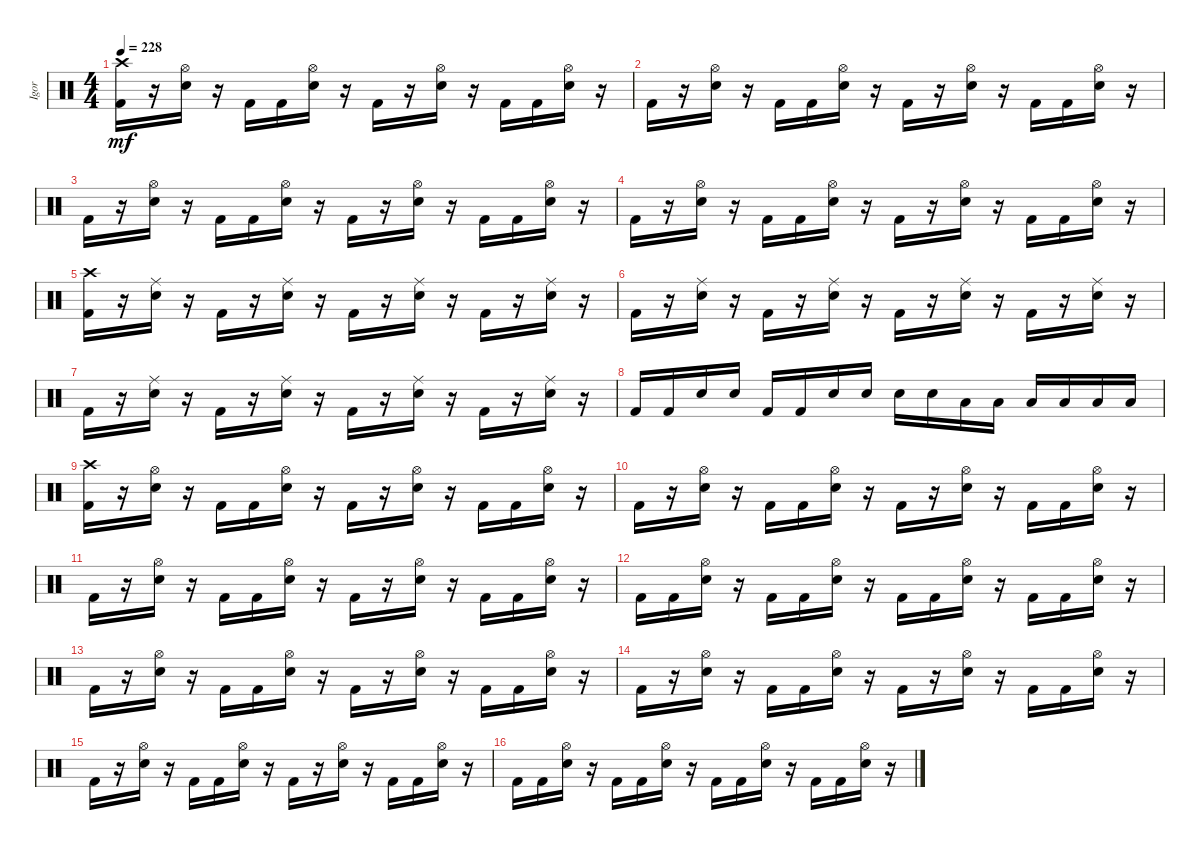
\track ("Igor" "Igor") {instrument percussion}
\staff {score}
\articulation defaults
\ts (4 4)
\tempo 228
\clef neutral
\ks c
("Kick (hit) 2" "Crash high (hit)").16{dy mf} r.16 ("Snare (hit) 2" "Hi-Hat (open)").16 r.16 "Kick (hit) 2".16 "Kick (hit) 2".16 ("Snare (hit) 2" "Hi-Hat (open)").16 r.16 "Kick (hit) 2".16 r.16 ("Snare (hit) 2" "Hi-Hat (open)").16 r.16 "Kick (hit) 2".16 "Kick (hit) 2".16 ("Snare (hit) 2" "Hi-Hat (open)").16 r.16 |
"Kick (hit) 2".16 r.16 ("Snare (hit) 2" "Hi-Hat (open)").16 r.16 "Kick (hit) 2".16 "Kick (hit) 2".16 ("Snare (hit) 2" "Hi-Hat (open)").16 r.16 "Kick (hit) 2".16 r.16 ("Snare (hit) 2" "Hi-Hat (open)").16 r.16 "Kick (hit) 2".16 "Kick (hit) 2".16 ("Snare (hit) 2" "Hi-Hat (open)").16 r.16 |
"Kick (hit) 2".16 r.16 ("Snare (hit) 2" "Hi-Hat (open)").16 r.16 "Kick (hit) 2".16 "Kick (hit) 2".16 ("Snare (hit) 2" "Hi-Hat (open)").16 r.16 "Kick (hit) 2".16 r.16 ("Snare (hit) 2" "Hi-Hat (open)").16 r.16 "Kick (hit) 2".16 "Kick (hit) 2".16 ("Snare (hit) 2" "Hi-Hat (open)").16 r.16 |
"Kick (hit) 2".16 r.16 ("Snare (hit) 2" "Hi-Hat (open)").16 r.16 "Kick (hit) 2".16 "Kick (hit) 2".16 ("Snare (hit) 2" "Hi-Hat (open)").16 r.16 "Kick (hit) 2".16 r.16 ("Snare (hit) 2" "Hi-Hat (open)").16 r.16 "Kick (hit) 2".16 "Kick (hit) 2".16 ("Snare (hit) 2" "Hi-Hat (open)").16 r.16 |
("Kick (hit) 2" "Crash high (hit)").16 r.16 ("Snare (hit) 2" "Ride (middle)").16 r.16 "Kick (hit) 2".16 r.16 ("Snare (hit) 2" "Ride (middle)").16 r.16 "Kick (hit) 2".16 r.16 ("Snare (hit) 2" "Ride (middle)").16 r.16 "Kick (hit) 2".16 r.16 ("Snare (hit) 2" "Ride (middle)").16 r.16 |
"Kick (hit) 2".16 r.16 ("Snare (hit) 2" "Ride (middle)").16 r.16 "Kick (hit) 2".16 r.16 ("Snare (hit) 2" "Ride (middle)").16 r.16 "Kick (hit) 2".16 r.16 ("Snare (hit) 2" "Ride (middle)").16 r.16 "Kick (hit) 2".16 r.16 ("Snare (hit) 2" "Ride (middle)").16 r.16 |
"Kick (hit) 2".16 r.16 ("Snare (hit) 2" "Ride (middle)").16 r.16 "Kick (hit) 2".16 r.16 ("Snare (hit) 2" "Ride (middle)").16 r.16 "Kick (hit) 2".16 r.16 ("Snare (hit) 2" "Ride (middle)").16 r.16 "Kick (hit) 2".16 r.16 ("Snare (hit) 2" "Ride (middle)").16 r.16 |
"Kick (hit) 2".16 "Kick (hit) 2".16 "Snare (hit) 2".16 "Snare (hit) 2".16 "Kick (hit) 2".16 "Kick (hit) 2".16 "Snare (hit) 2".16 "Snare (hit) 2".16 "Snare (hit) 2".16 "Snare (hit) 2".16 "Low Tom (hit)".16 "Low Tom (hit)".16 "Low Tom (hit)".16 "Low Tom (hit)".16 "Low Floor Tom (hit)".16 "Low Floor Tom (hit)".16 |
("Kick (hit) 2" "Crash high (hit)").16 r.16 ("Snare (hit) 2" "Hi-Hat (open)").16 r.16 "Kick (hit) 2".16 "Kick (hit) 2".16 ("Snare (hit) 2" "Hi-Hat (open)").16 r.16 "Kick (hit) 2".16 r.16 ("Snare (hit) 2" "Hi-Hat (open)").16 r.16 "Kick (hit) 2".16 "Kick (hit) 2".16 ("Snare (hit) 2" "Hi-Hat (open)").16 r.16 |
"Kick (hit) 2".16 r.16 ("Snare (hit) 2" "Hi-Hat (open)").16 r.16 "Kick (hit) 2".16 "Kick (hit) 2".16 ("Snare (hit) 2" "Hi-Hat (open)").16 r.16 "Kick (hit) 2".16 r.16 ("Snare (hit) 2" "Hi-Hat (open)").16 r.16 "Kick (hit) 2".16 "Kick (hit) 2".16 ("Snare (hit) 2" "Hi-Hat (open)").16 r.16 |
"Kick (hit) 2".16 r.16 ("Snare (hit) 2" "Hi-Hat (open)").16 r.16 "Kick (hit) 2".16 "Kick (hit) 2".16 ("Snare (hit) 2" "Hi-Hat (open)").16 r.16 "Kick (hit) 2".16 r.16 ("Snare (hit) 2" "Hi-Hat (open)").16 r.16 "Kick (hit) 2".16 "Kick (hit) 2".16 ("Snare (hit) 2" "Hi-Hat (open)").16 r.16 |
"Kick (hit) 2".16 "Kick (hit) 2".16 ("Snare (hit) 2" "Hi-Hat (open)").16 r.16 "Kick (hit) 2".16 "Kick (hit) 2".16 ("Snare (hit) 2" "Hi-Hat (open)").16 r.16 "Kick (hit) 2".16 "Kick (hit) 2".16 ("Snare (hit) 2" "Hi-Hat (open)").16 r.16 "Kick (hit) 2".16 "Kick (hit) 2".16 ("Snare (hit) 2" "Hi-Hat (open)").16 r.16 |
"Kick (hit) 2".16 r.16 ("Snare (hit) 2" "Hi-Hat (open)").16 r.16 "Kick (hit) 2".16 "Kick (hit) 2".16 ("Snare (hit) 2" "Hi-Hat (open)").16 r.16 "Kick (hit) 2".16 r.16 ("Snare (hit) 2" "Hi-Hat (open)").16 r.16 "Kick (hit) 2".16 "Kick (hit) 2".16 ("Snare (hit) 2" "Hi-Hat (open)").16 r.16 |
"Kick (hit) 2".16 r.16 ("Snare (hit) 2" "Hi-Hat (open)").16 r.16 "Kick (hit) 2".16 "Kick (hit) 2".16 ("Snare (hit) 2" "Hi-Hat (open)").16 r.16 "Kick (hit) 2".16 r.16 ("Snare (hit) 2" "Hi-Hat (open)").16 r.16 "Kick (hit) 2".16 "Kick (hit) 2".16 ("Snare (hit) 2" "Hi-Hat (open)").16 r.16 |
"Kick (hit) 2".16 r.16 ("Snare (hit) 2" "Hi-Hat (open)").16 r.16 "Kick (hit) 2".16 "Kick (hit) 2".16 ("Snare (hit) 2" "Hi-Hat (open)").16 r.16 "Kick (hit) 2".16 r.16 ("Snare (hit) 2" "Hi-Hat (open)").16 r.16 "Kick (hit) 2".16 "Kick (hit) 2".16 ("Snare (hit) 2" "Hi-Hat (open)").16 r.16 |
"Kick (hit) 2".16 "Kick (hit) 2".16 ("Snare (hit) 2" "Hi-Hat (open)").16 r.16 "Kick (hit) 2".16 "Kick (hit) 2".16 ("Snare (hit) 2" "Hi-Hat (open)").16 r.16 "Kick (hit) 2".16 "Kick (hit) 2".16 ("Snare (hit) 2" "Hi-Hat (open)").16 r.16 "Kick (hit) 2".16 "Kick (hit) 2".16 ("Snare (hit) 2" "Hi-Hat (open)").16 r.16
